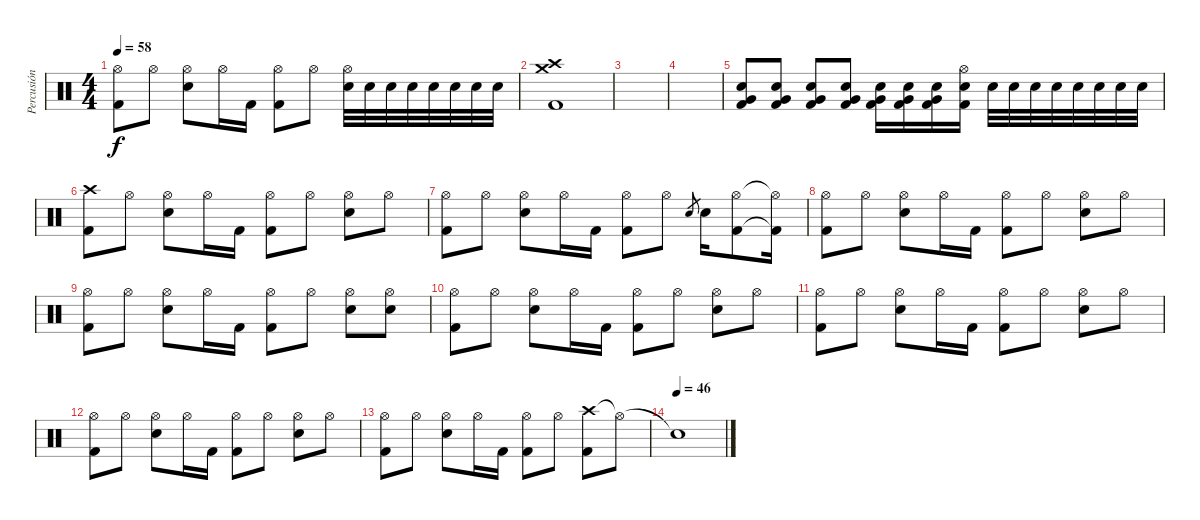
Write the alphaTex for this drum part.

\track ("Percusión" "Percusión") {instrument percussion}
\staff {score}
\articulation defaults
\ts (4 4)
\tempo 58
\clef neutral
\ks c
("Hi-Hat (open)" "Kick (hit) 2").8{dy f} "Hi-Hat (open)".8 ("Hi-Hat (open)" "Electric Snare (hit)").8 "Hi-Hat (open)".16 "Kick (hit) 2".16 ("Hi-Hat (open)" "Kick (hit) 2").8 "Hi-Hat (open)".8 ("Hi-Hat (open)" "Electric Snare (hit)").32 "Electric Snare (hit)".32 "Electric Snare (hit)".32 "Electric Snare (hit)".32 "Electric Snare (hit)".32 "Electric Snare (hit)".32 "Electric Snare (hit)".32 "Electric Snare (hit)".32 |
("Crash medium (hit)" "Crash high (hit)" "Kick (hit) 2").1 |
|
|
("Kick (hit) 2" "Very Low Tom (hit)" "Electric Snare (hit)").8 ("Kick (hit) 2" "Very Low Tom (hit)" "Electric Snare (hit)").8 ("Kick (hit) 2" "Very Low Tom (hit)" "Electric Snare (hit)").8 ("Kick (hit) 2" "Very Low Tom (hit)" "Electric Snare (hit)").8 ("Kick (hit) 2" "Very Low Tom (hit)" "Electric Snare (hit)").16 ("Kick (hit) 2" "Very Low Tom (hit)" "Electric Snare (hit)").16 ("Kick (hit) 2" "Very Low Tom (hit)" "Electric Snare (hit)").16 ("Kick (hit) 2" "Hi-Hat (open)" "Electric Snare (hit)").16 "Electric Snare (hit)".32 "Electric Snare (hit)".32 "Electric Snare (hit)".32 "Electric Snare (hit)".32 "Electric Snare (hit)".32 "Electric Snare (hit)".32 "Electric Snare (hit)".32 "Electric Snare (hit)".32 |
("Crash high (hit)" "Kick (hit) 2").8 "Hi-Hat (open)".8 ("Hi-Hat (open)" "Electric Snare (hit)").8 "Hi-Hat (open)".16 "Kick (hit) 2".16 ("Hi-Hat (open)" "Kick (hit) 2").8 "Hi-Hat (open)".8 ("Hi-Hat (open)" "Electric Snare (hit)").8 "Hi-Hat (open)".8 |
("Hi-Hat (open)" "Kick (hit) 2").8 "Hi-Hat (open)".8 ("Hi-Hat (open)" "Electric Snare (hit)").8 "Hi-Hat (open)".16 "Kick (hit) 2".16 ("Hi-Hat (open)" "Kick (hit) 2").8 "Hi-Hat (open)".8 "Electric Snare (hit)".8{gr} "Electric Snare (hit)".16 ("Hi-Hat (open)" "Kick (hit) 2").8 ("Hi-Hat (open)"{t} "Kick (hit) 2"{t}).16 |
("Hi-Hat (open)" "Kick (hit) 2").8 "Hi-Hat (open)".8 ("Hi-Hat (open)" "Electric Snare (hit)").8 "Hi-Hat (open)".16 "Kick (hit) 2".16 ("Hi-Hat (open)" "Kick (hit) 2").8 "Hi-Hat (open)".8 ("Hi-Hat (open)" "Electric Snare (hit)").8 "Hi-Hat (open)".8 |
("Hi-Hat (open)" "Kick (hit) 2").8 "Hi-Hat (open)".8 ("Hi-Hat (open)" "Electric Snare (hit)").8 "Hi-Hat (open)".16 "Kick (hit) 2".16 ("Hi-Hat (open)" "Kick (hit) 2").8 "Hi-Hat (open)".8 ("Hi-Hat (open)" "Electric Snare (hit)").8 ("Hi-Hat (open)" "Electric Snare (hit)").8 |
("Hi-Hat (open)" "Kick (hit) 2").8 "Hi-Hat (open)".8 ("Hi-Hat (open)" "Electric Snare (hit)").8 "Hi-Hat (open)".16 "Kick (hit) 2".16 ("Hi-Hat (open)" "Kick (hit) 2").8 "Hi-Hat (open)".8 ("Hi-Hat (open)" "Electric Snare (hit)").8 "Hi-Hat (open)".8 |
("Hi-Hat (open)" "Kick (hit) 2").8 "Hi-Hat (open)".8 ("Hi-Hat (open)" "Electric Snare (hit)").8 "Hi-Hat (open)".16 "Kick (hit) 2".16 ("Hi-Hat (open)" "Kick (hit) 2").8 "Hi-Hat (open)".8 ("Hi-Hat (open)" "Electric Snare (hit)").8 "Hi-Hat (open)".8 |
("Hi-Hat (open)" "Kick (hit) 2").8 "Hi-Hat (open)".8 ("Hi-Hat (open)" "Electric Snare (hit)").8 "Hi-Hat (open)".16 "Kick (hit) 2".16 ("Hi-Hat (open)" "Kick (hit) 2").8 "Hi-Hat (open)".8 ("Hi-Hat (open)" "Electric Snare (hit)").8 "Hi-Hat (open)".8 |
("Hi-Hat (open)" "Kick (hit) 2").8 "Hi-Hat (open)".8 ("Hi-Hat (open)" "Electric Snare (hit)").8 "Hi-Hat (open)".16 "Kick (hit) 2".16 ("Hi-Hat (open)" "Kick (hit) 2").8 "Hi-Hat (open)".8 ("Crash high (hit)" "Kick (hit) 2").8 "Hi-Hat (open)"{t}.8 |
\tempo (46)
"Snare (hit)"{t}.1
